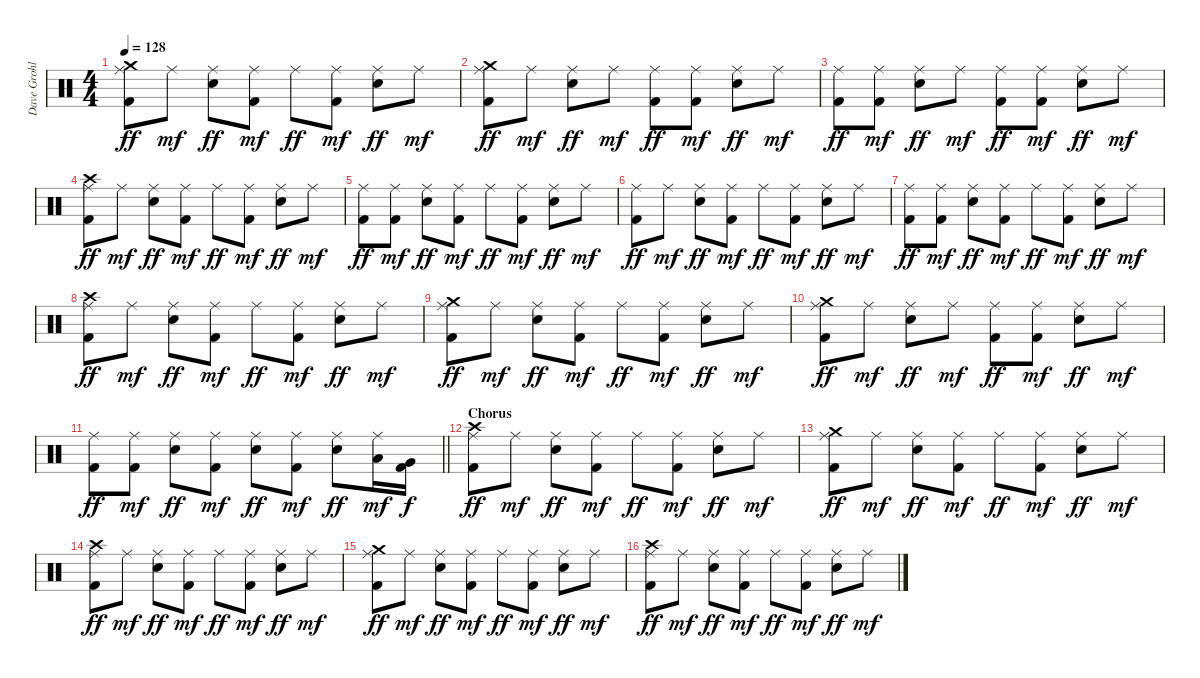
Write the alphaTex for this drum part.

\track ("Dave Grohl" "Dave Grohl") {instrument percussion}
\staff {score}
\articulation defaults
\ts (4 4)
\tempo 128
\clef neutral
\ks c
("Crash medium (hit)" "Ride (middle)" "Kick (hit) 2").8{dy ff} "Ride (middle)".8{dy mf} ("Ride (middle)" "Snare (hit) 2").8{dy ff} ("Ride (middle)" "Kick (hit) 2").8{dy mf} "Ride (middle)".8{dy ff} ("Ride (middle)" "Kick (hit) 2").8{dy mf} ("Ride (middle)" "Snare (hit) 2").8{dy ff} "Ride (middle)".8{dy mf} |
("Crash medium (hit)" "Ride (middle)" "Kick (hit) 2").8{dy ff} "Ride (middle)".8{dy mf} ("Ride (middle)" "Snare (hit) 2").8{dy ff} "Ride (middle)".8{dy mf} ("Ride (middle)" "Kick (hit) 2").8{dy ff} ("Ride (middle)" "Kick (hit) 2").8{dy mf} ("Ride (middle)" "Snare (hit) 2").8{dy ff} "Ride (middle)".8{dy mf} |
("Ride (middle)" "Kick (hit) 2").8{dy ff} ("Ride (middle)" "Kick (hit) 2").8{dy mf} ("Ride (middle)" "Snare (hit) 2").8{dy ff} "Ride (middle)".8{dy mf} ("Ride (middle)" "Kick (hit) 2").8{dy ff} ("Ride (middle)" "Kick (hit) 2").8{dy mf} ("Ride (middle)" "Snare (hit) 2").8{dy ff} "Ride (middle)".8{dy mf} |
("Crash high (hit)" "Ride (middle)" "Kick (hit) 2").8{dy ff} "Ride (middle)".8{dy mf} ("Ride (middle)" "Snare (hit) 2").8{dy ff} ("Ride (middle)" "Kick (hit) 2").8{dy mf} "Ride (middle)".8{dy ff} ("Ride (middle)" "Kick (hit) 2").8{dy mf} ("Ride (middle)" "Snare (hit) 2").8{dy ff} "Ride (middle)".8{dy mf} |
("Ride (middle)" "Kick (hit) 2").8{dy ff} ("Ride (middle)" "Kick (hit) 2").8{dy mf} ("Ride (middle)" "Snare (hit) 2").8{dy ff} ("Ride (middle)" "Kick (hit) 2").8{dy mf} "Ride (middle)".8{dy ff} ("Ride (middle)" "Kick (hit) 2").8{dy mf} ("Ride (middle)" "Snare (hit) 2").8{dy ff} "Ride (middle)".8{dy mf} |
("Ride (middle)" "Kick (hit) 2").8{dy ff} "Ride (middle)".8{dy mf} ("Ride (middle)" "Snare (hit) 2").8{dy ff} ("Ride (middle)" "Kick (hit) 2").8{dy mf} "Ride (middle)".8{dy ff} ("Ride (middle)" "Kick (hit) 2").8{dy mf} ("Ride (middle)" "Snare (hit) 2").8{dy ff} "Ride (middle)".8{dy mf} |
("Ride (middle)" "Kick (hit) 2").8{dy ff} ("Ride (middle)" "Kick (hit) 2").8{dy mf} ("Ride (middle)" "Snare (hit) 2").8{dy ff} ("Ride (middle)" "Kick (hit) 2").8{dy mf} "Ride (middle)".8{dy ff} ("Ride (middle)" "Kick (hit) 2").8{dy mf} ("Ride (middle)" "Snare (hit) 2").8{dy ff} "Ride (middle)".8{dy mf} |
("Crash high (hit)" "Ride (middle)" "Kick (hit) 2").8{dy ff} "Ride (middle)".8{dy mf} ("Ride (middle)" "Snare (hit) 2").8{dy ff} ("Ride (middle)" "Kick (hit) 2").8{dy mf} "Ride (middle)".8{dy ff} ("Ride (middle)" "Kick (hit) 2").8{dy mf} ("Ride (middle)" "Snare (hit) 2").8{dy ff} "Ride (middle)".8{dy mf} |
("Crash medium (hit)" "Ride (middle)" "Kick (hit) 2").8{dy ff} "Ride (middle)".8{dy mf} ("Ride (middle)" "Snare (hit) 2").8{dy ff} ("Ride (middle)" "Kick (hit) 2").8{dy mf} "Ride (middle)".8{dy ff} ("Ride (middle)" "Kick (hit) 2").8{dy mf} ("Ride (middle)" "Snare (hit) 2").8{dy ff} "Ride (middle)".8{dy mf} |
("Crash medium (hit)" "Ride (middle)" "Kick (hit) 2").8{dy ff} "Ride (middle)".8{dy mf} ("Ride (middle)" "Snare (hit) 2").8{dy ff} "Ride (middle)".8{dy mf} ("Ride (middle)" "Kick (hit) 2").8{dy ff} ("Ride (middle)" "Kick (hit) 2").8{dy mf} ("Ride (middle)" "Snare (hit) 2").8{dy ff} "Ride (middle)".8{dy mf} |
\barLineRight lightlight
("Ride (middle)" "Kick (hit) 2").8{dy ff} ("Ride (middle)" "Kick (hit) 2").8{dy mf} ("Ride (middle)" "Snare (hit) 2").8{dy ff} ("Ride (middle)" "Kick (hit) 2").8{dy mf} ("Ride (middle)" "Snare (hit) 2").8{dy ff} ("Ride (middle)" "Kick (hit) 2").8{dy mf} ("Ride (middle)" "Snare (hit) 2").8{dy ff} ("Ride (middle)" "Low Tom (hit)").16{dy mf} ("Very Low Tom (hit)" "Kick (hit) 2").16{dy f} |
\section ("" "Chorus")
("Crash high (hit)" "Ride (middle)" "Kick (hit) 2").8{dy ff} "Ride (middle)".8{dy mf} ("Ride (middle)" "Snare (hit) 2").8{dy ff} ("Ride (middle)" "Kick (hit) 2").8{dy mf} "Ride (middle)".8{dy ff} ("Ride (middle)" "Kick (hit) 2").8{dy mf} ("Ride (middle)" "Snare (hit) 2").8{dy ff} "Ride (middle)".8{dy mf} |
("Crash medium (hit)" "Ride (middle)" "Kick (hit) 2").8{dy ff} "Ride (middle)".8{dy mf} ("Ride (middle)" "Snare (hit) 2").8{dy ff} ("Ride (middle)" "Kick (hit) 2").8{dy mf} "Ride (middle)".8{dy ff} ("Ride (middle)" "Kick (hit) 2").8{dy mf} ("Ride (middle)" "Snare (hit) 2").8{dy ff} "Ride (middle)".8{dy mf} |
("Crash high (hit)" "Ride (middle)" "Kick (hit) 2").8{dy ff} "Ride (middle)".8{dy mf} ("Ride (middle)" "Snare (hit) 2").8{dy ff} ("Ride (middle)" "Kick (hit) 2").8{dy mf} "Ride (middle)".8{dy ff} ("Ride (middle)" "Kick (hit) 2").8{dy mf} ("Ride (middle)" "Snare (hit) 2").8{dy ff} "Ride (middle)".8{dy mf} |
("Crash medium (hit)" "Ride (middle)" "Kick (hit) 2").8{dy ff} "Ride (middle)".8{dy mf} ("Ride (middle)" "Snare (hit) 2").8{dy ff} ("Ride (middle)" "Kick (hit) 2").8{dy mf} "Ride (middle)".8{dy ff} ("Ride (middle)" "Kick (hit) 2").8{dy mf} ("Ride (middle)" "Snare (hit) 2").8{dy ff} "Ride (middle)".8{dy mf} |
("Crash high (hit)" "Ride (middle)" "Kick (hit) 2").8{dy ff} "Ride (middle)".8{dy mf} ("Ride (middle)" "Snare (hit) 2").8{dy ff} ("Ride (middle)" "Kick (hit) 2").8{dy mf} "Ride (middle)".8{dy ff} ("Ride (middle)" "Kick (hit) 2").8{dy mf} ("Ride (middle)" "Snare (hit) 2").8{dy ff} "Ride (middle)".8{dy mf}
